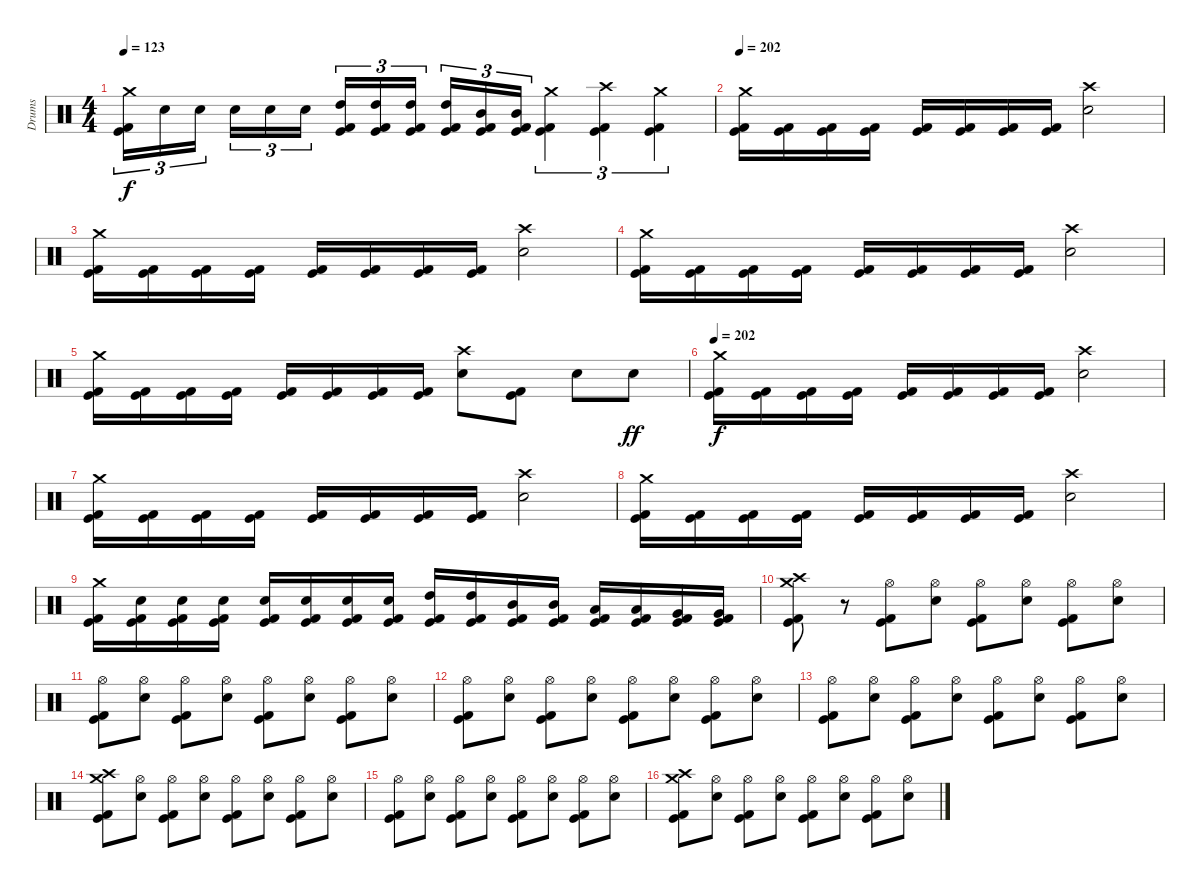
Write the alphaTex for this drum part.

\track ("Drums" "Drums") {instrument percussion}
\staff {score}
\articulation defaults
\ts (4 4)
\tempo 123
\clef neutral
\ks c
("Crash medium (hit)" "Kick (hit)" "Kick (hit) 2").16{tu (3 2) dy f} "Electric Snare (hit)".16{tu (3 2)} "Electric Snare (hit)".16{tu (3 2)} "Electric Snare (hit)".16{tu (3 2)} "Electric Snare (hit)".16{tu (3 2)} "Electric Snare (hit)".16{tu (3 2)} ("High Tom (hit)" "Kick (hit)" "Kick (hit) 2").16{tu (3 2)} ("High Tom (hit)" "Kick (hit)" "Kick (hit) 2").16{tu (3 2)} ("High Tom (hit)" "Kick (hit)" "Kick (hit) 2").16{tu (3 2)} ("High Tom (hit)" "Kick (hit)" "Kick (hit) 2").16{tu (3 2)} ("Mid Tom (hit)" "Kick (hit)" "Kick (hit) 2").16{tu (3 2)} ("Mid Tom (hit)" "Kick (hit)" "Kick (hit) 2").16{tu (3 2)} ("Crash medium (hit)" "Kick (hit)" "Kick (hit) 2").4{tu (3 2)} ("Crash high (hit)" "Kick (hit)" "Kick (hit) 2").4{tu (3 2)} ("Crash medium (hit)" "Kick (hit)" "Kick (hit) 2").4{tu (3 2)} |
\tempo 202
("Crash medium (hit)" "Kick (hit)" "Kick (hit) 2").16 ("Kick (hit)" "Kick (hit) 2").16 ("Kick (hit)" "Kick (hit) 2").16 ("Kick (hit)" "Kick (hit) 2").16 ("Kick (hit)" "Kick (hit) 2").16 ("Kick (hit)" "Kick (hit) 2").16 ("Kick (hit)" "Kick (hit) 2").16 ("Kick (hit)" "Kick (hit) 2").16 ("Crash high (hit)" "Electric Snare (hit)").2 |
("Crash medium (hit)" "Kick (hit)" "Kick (hit) 2").16 ("Kick (hit)" "Kick (hit) 2").16 ("Kick (hit)" "Kick (hit) 2").16 ("Kick (hit)" "Kick (hit) 2").16 ("Kick (hit)" "Kick (hit) 2").16 ("Kick (hit)" "Kick (hit) 2").16 ("Kick (hit)" "Kick (hit) 2").16 ("Kick (hit)" "Kick (hit) 2").16 ("Crash high (hit)" "Electric Snare (hit)").2 |
("Crash medium (hit)" "Kick (hit)" "Kick (hit) 2").16 ("Kick (hit)" "Kick (hit) 2").16 ("Kick (hit)" "Kick (hit) 2").16 ("Kick (hit)" "Kick (hit) 2").16 ("Kick (hit)" "Kick (hit) 2").16 ("Kick (hit)" "Kick (hit) 2").16 ("Kick (hit)" "Kick (hit) 2").16 ("Kick (hit)" "Kick (hit) 2").16 ("Crash high (hit)" "Electric Snare (hit)").2 |
("Crash medium (hit)" "Kick (hit)" "Kick (hit) 2").16 ("Kick (hit)" "Kick (hit) 2").16 ("Kick (hit)" "Kick (hit) 2").16 ("Kick (hit)" "Kick (hit) 2").16 ("Kick (hit)" "Kick (hit) 2").16 ("Kick (hit)" "Kick (hit) 2").16 ("Kick (hit)" "Kick (hit) 2").16 ("Kick (hit)" "Kick (hit) 2").16 ("Crash high (hit)" "Electric Snare (hit)").8 ("Kick (hit)" "Kick (hit) 2").8 "Electric Snare (hit)".8 "Electric Snare (hit)".8{dy ff} |
\tempo 202
("Crash medium (hit)" "Kick (hit)" "Kick (hit) 2").16{dy f} ("Kick (hit)" "Kick (hit) 2").16 ("Kick (hit)" "Kick (hit) 2").16 ("Kick (hit)" "Kick (hit) 2").16 ("Kick (hit)" "Kick (hit) 2").16 ("Kick (hit)" "Kick (hit) 2").16 ("Kick (hit)" "Kick (hit) 2").16 ("Kick (hit)" "Kick (hit) 2").16 ("Crash high (hit)" "Electric Snare (hit)").2 |
("Crash medium (hit)" "Kick (hit)" "Kick (hit) 2").16 ("Kick (hit)" "Kick (hit) 2").16 ("Kick (hit)" "Kick (hit) 2").16 ("Kick (hit)" "Kick (hit) 2").16 ("Kick (hit)" "Kick (hit) 2").16 ("Kick (hit)" "Kick (hit) 2").16 ("Kick (hit)" "Kick (hit) 2").16 ("Kick (hit)" "Kick (hit) 2").16 ("Crash high (hit)" "Electric Snare (hit)").2 |
("Crash medium (hit)" "Kick (hit)" "Kick (hit) 2").16 ("Kick (hit)" "Kick (hit) 2").16 ("Kick (hit)" "Kick (hit) 2").16 ("Kick (hit)" "Kick (hit) 2").16 ("Kick (hit)" "Kick (hit) 2").16 ("Kick (hit)" "Kick (hit) 2").16 ("Kick (hit)" "Kick (hit) 2").16 ("Kick (hit)" "Kick (hit) 2").16 ("Crash high (hit)" "Electric Snare (hit)").2 |
("Crash medium (hit)" "Kick (hit)" "Kick (hit) 2").16 ("Electric Snare (hit)" "Kick (hit)" "Kick (hit) 2").16 ("Electric Snare (hit)" "Kick (hit)" "Kick (hit) 2").16 ("Electric Snare (hit)" "Kick (hit)" "Kick (hit) 2").16 ("Electric Snare (hit)" "Kick (hit)" "Kick (hit) 2").16 ("Electric Snare (hit)" "Kick (hit)" "Kick (hit) 2").16 ("Electric Snare (hit)" "Kick (hit)" "Kick (hit) 2").16 ("Electric Snare (hit)" "Kick (hit)" "Kick (hit) 2").16 ("High Tom (hit)" "Kick (hit)" "Kick (hit) 2").16 ("High Tom (hit)" "Kick (hit)" "Kick (hit) 2").16 ("Mid Tom (hit)" "Kick (hit)" "Kick (hit) 2").16 ("Mid Tom (hit)" "Kick (hit)" "Kick (hit) 2").16 ("Low Tom (hit)" "Kick (hit)" "Kick (hit) 2").16 ("Low Tom (hit)" "Kick (hit)" "Kick (hit) 2").16 ("Very Low Tom (hit)" "Kick (hit)" "Kick (hit) 2").16 ("Very Low Tom (hit)" "Kick (hit)" "Kick (hit) 2").16 |
("Crash medium (hit)" "Crash high (hit)" "Kick (hit)" "Kick (hit) 2").8 r.8 ("Hi-Hat (open)" "Kick (hit)" "Kick (hit) 2").8 ("Hi-Hat (open)" "Electric Snare (hit)").8 ("Hi-Hat (open)" "Kick (hit)" "Kick (hit) 2").8 ("Hi-Hat (open)" "Electric Snare (hit)").8 ("Hi-Hat (open)" "Kick (hit)" "Kick (hit) 2").8 ("Hi-Hat (open)" "Electric Snare (hit)").8 |
("Hi-Hat (open)" "Kick (hit)" "Kick (hit) 2").8 ("Hi-Hat (open)" "Electric Snare (hit)").8 ("Hi-Hat (open)" "Kick (hit)" "Kick (hit) 2").8 ("Hi-Hat (open)" "Electric Snare (hit)").8 ("Hi-Hat (open)" "Kick (hit)" "Kick (hit) 2").8 ("Hi-Hat (open)" "Electric Snare (hit)").8 ("Hi-Hat (open)" "Kick (hit)" "Kick (hit) 2").8 ("Hi-Hat (open)" "Electric Snare (hit)").8 |
("Hi-Hat (open)" "Kick (hit)" "Kick (hit) 2").8 ("Hi-Hat (open)" "Electric Snare (hit)").8 ("Hi-Hat (open)" "Kick (hit)" "Kick (hit) 2").8 ("Hi-Hat (open)" "Electric Snare (hit)").8 ("Hi-Hat (open)" "Kick (hit)" "Kick (hit) 2").8 ("Hi-Hat (open)" "Electric Snare (hit)").8 ("Hi-Hat (open)" "Kick (hit)" "Kick (hit) 2").8 ("Hi-Hat (open)" "Electric Snare (hit)").8 |
("Hi-Hat (open)" "Kick (hit)" "Kick (hit) 2").8 ("Hi-Hat (open)" "Electric Snare (hit)").8 ("Hi-Hat (open)" "Kick (hit)" "Kick (hit) 2").8 ("Hi-Hat (open)" "Electric Snare (hit)").8 ("Hi-Hat (open)" "Kick (hit)" "Kick (hit) 2").8 ("Hi-Hat (open)" "Electric Snare (hit)").8 ("Hi-Hat (open)" "Kick (hit)" "Kick (hit) 2").8 ("Hi-Hat (open)" "Electric Snare (hit)").8 |
("Crash medium (hit)" "Crash high (hit)" "Kick (hit)" "Kick (hit) 2").8 ("Hi-Hat (open)" "Electric Snare (hit)").8 ("Hi-Hat (open)" "Kick (hit)" "Kick (hit) 2").8 ("Hi-Hat (open)" "Electric Snare (hit)").8 ("Hi-Hat (open)" "Kick (hit)" "Kick (hit) 2").8 ("Hi-Hat (open)" "Electric Snare (hit)").8 ("Hi-Hat (open)" "Kick (hit)" "Kick (hit) 2").8 ("Hi-Hat (open)" "Electric Snare (hit)").8 |
("Hi-Hat (open)" "Kick (hit)" "Kick (hit) 2").8 ("Hi-Hat (open)" "Electric Snare (hit)").8 ("Hi-Hat (open)" "Kick (hit)" "Kick (hit) 2").8 ("Hi-Hat (open)" "Electric Snare (hit)").8 ("Hi-Hat (open)" "Kick (hit)" "Kick (hit) 2").8 ("Hi-Hat (open)" "Electric Snare (hit)").8 ("Hi-Hat (open)" "Kick (hit)" "Kick (hit) 2").8 ("Hi-Hat (open)" "Electric Snare (hit)").8 |
("Crash medium (hit)" "Crash high (hit)" "Kick (hit)" "Kick (hit) 2").8 ("Hi-Hat (open)" "Electric Snare (hit)").8 ("Hi-Hat (open)" "Kick (hit)" "Kick (hit) 2").8 ("Hi-Hat (open)" "Electric Snare (hit)").8 ("Hi-Hat (open)" "Kick (hit)" "Kick (hit) 2").8 ("Hi-Hat (open)" "Electric Snare (hit)").8 ("Hi-Hat (open)" "Kick (hit)" "Kick (hit) 2").8 ("Hi-Hat (open)" "Electric Snare (hit)").8
